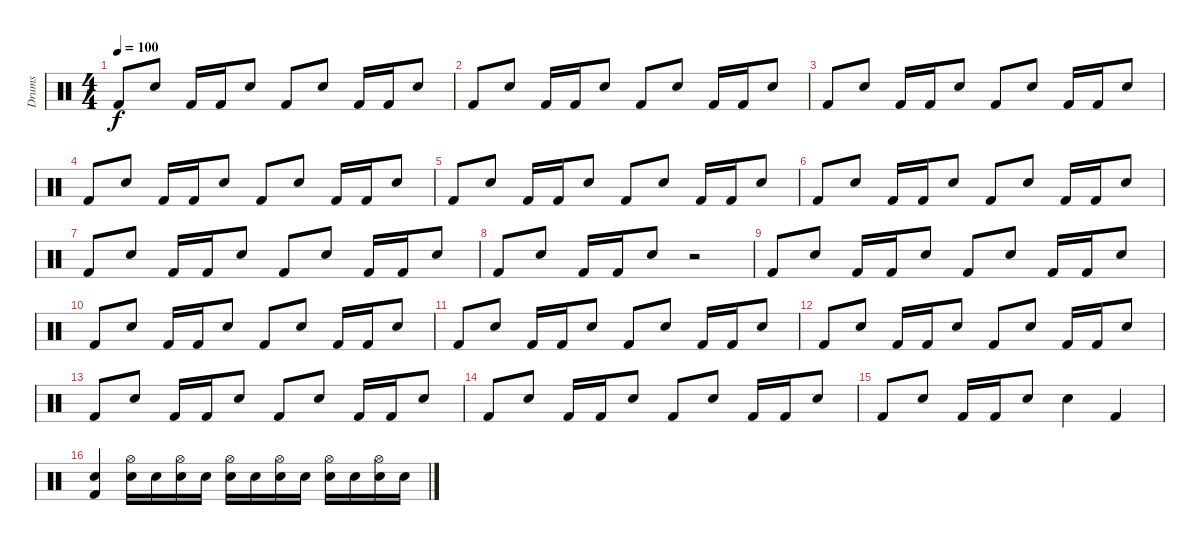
\track ("Drums" "Drums") {instrument percussion}
\staff {score}
\articulation defaults
\ts (4 4)
\tempo 100
\clef neutral
\ks c "Kick (hit) 2".8{dy f} "Snare (hit) 2".8 "Kick (hit) 2".16 "Kick (hit) 2".16 "Snare (hit) 2".8 "Kick (hit) 2".8 "Snare (hit) 2".8 "Kick (hit) 2".16 "Kick (hit) 2".16 "Snare (hit) 2".8
|
"Kick (hit) 2".8 "Snare (hit) 2".8 "Kick (hit) 2".16 "Kick (hit) 2".16 "Snare (hit) 2".8 "Kick (hit) 2".8 "Snare (hit) 2".8 "Kick (hit) 2".16 "Kick (hit) 2".16 "Snare (hit) 2".8 |
"Kick (hit) 2".8 "Snare (hit) 2".8 "Kick (hit) 2".16 "Kick (hit) 2".16 "Snare (hit) 2".8 "Kick (hit) 2".8 "Snare (hit) 2".8 "Kick (hit) 2".16 "Kick (hit) 2".16 "Snare (hit) 2".8 |
"Kick (hit) 2".8 "Snare (hit) 2".8 "Kick (hit) 2".16 "Kick (hit) 2".16 "Snare (hit) 2".8 "Kick (hit) 2".8 "Snare (hit) 2".8 "Kick (hit) 2".16 "Kick (hit) 2".16 "Snare (hit) 2".8 |
"Kick (hit) 2".8 "Snare (hit) 2".8 "Kick (hit) 2".16 "Kick (hit) 2".16 "Snare (hit) 2".8 "Kick (hit) 2".8 "Snare (hit) 2".8 "Kick (hit) 2".16 "Kick (hit) 2".16 "Snare (hit) 2".8 |
"Kick (hit) 2".8 "Snare (hit) 2".8 "Kick (hit) 2".16 "Kick (hit) 2".16 "Snare (hit) 2".8 "Kick (hit) 2".8 "Snare (hit) 2".8 "Kick (hit) 2".16 "Kick (hit) 2".16 "Snare (hit) 2".8 |
"Kick (hit) 2".8 "Snare (hit) 2".8 "Kick (hit) 2".16 "Kick (hit) 2".16 "Snare (hit) 2".8 "Kick (hit) 2".8 "Snare (hit) 2".8 "Kick (hit) 2".16 "Kick (hit) 2".16 "Snare (hit) 2".8 |
"Kick (hit) 2".8 "Snare (hit) 2".8 "Kick (hit) 2".16 "Kick (hit) 2".16 "Snare (hit) 2".8 r.2 |
"Kick (hit) 2".8 "Snare (hit) 2".8 "Kick (hit) 2".16 "Kick (hit) 2".16 "Snare (hit) 2".8 "Kick (hit) 2".8 "Snare (hit) 2".8 "Kick (hit) 2".16 "Kick (hit) 2".16 "Snare (hit) 2".8 |
"Kick (hit) 2".8 "Snare (hit) 2".8 "Kick (hit) 2".16 "Kick (hit) 2".16 "Snare (hit) 2".8 "Kick (hit) 2".8 "Snare (hit) 2".8 "Kick (hit) 2".16 "Kick (hit) 2".16 "Snare (hit) 2".8 |
"Kick (hit) 2".8 "Snare (hit) 2".8 "Kick (hit) 2".16 "Kick (hit) 2".16 "Snare (hit) 2".8 "Kick (hit) 2".8 "Snare (hit) 2".8 "Kick (hit) 2".16 "Kick (hit) 2".16 "Snare (hit) 2".8 |
"Kick (hit) 2".8 "Snare (hit) 2".8 "Kick (hit) 2".16 "Kick (hit) 2".16 "Snare (hit) 2".8 "Kick (hit) 2".8 "Snare (hit) 2".8 "Kick (hit) 2".16 "Kick (hit) 2".16 "Snare (hit) 2".8 |
"Kick (hit) 2".8 "Snare (hit) 2".8 "Kick (hit) 2".16 "Kick (hit) 2".16 "Snare (hit) 2".8 "Kick (hit) 2".8 "Snare (hit) 2".8 "Kick (hit) 2".16 "Kick (hit) 2".16 "Snare (hit) 2".8 |
"Kick (hit) 2".8 "Snare (hit) 2".8 "Kick (hit) 2".16 "Kick (hit) 2".16 "Snare (hit) 2".8 "Kick (hit) 2".8 "Snare (hit) 2".8 "Kick (hit) 2".16 "Kick (hit) 2".16 "Snare (hit) 2".8 |
"Kick (hit) 2".8 "Snare (hit) 2".8 "Kick (hit) 2".16 "Kick (hit) 2".16 "Snare (hit) 2".8 "Snare (hit) 2".4 "Kick (hit) 2".4 |
("Kick (hit) 2" "Snare (hit) 2").4 ("Snare (hit) 2" "Hi-Hat (open)").16 "Snare (hit) 2".16 ("Snare (hit) 2" "Hi-Hat (open)").16 "Snare (hit) 2".16 ("Snare (hit) 2" "Hi-Hat (open)").16 "Snare (hit) 2".16 ("Snare (hit) 2" "Hi-Hat (open)").16 "Snare (hit) 2".16 ("Snare (hit) 2" "Hi-Hat (open)").16 "Snare (hit) 2".16 ("Snare (hit) 2" "Hi-Hat (open)").16 "Snare (hit) 2".16
